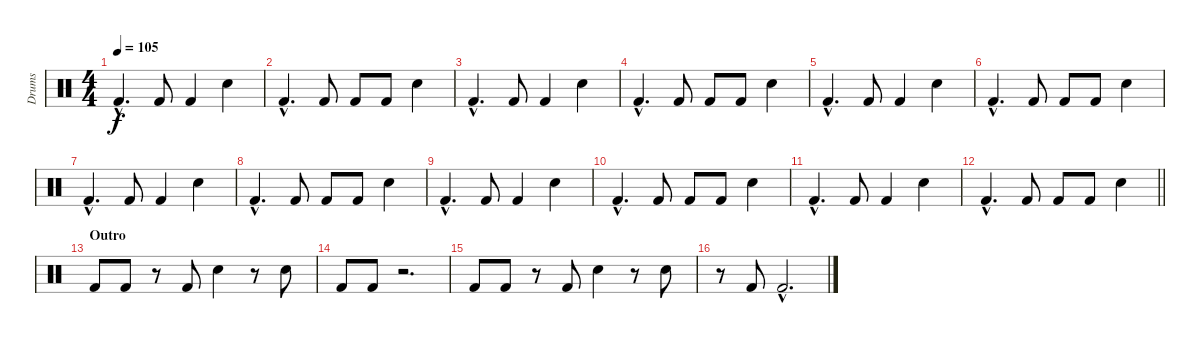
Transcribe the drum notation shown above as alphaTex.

\track ("Drums" "Drums") {instrument percussion}
\staff {score}
\articulation defaults
\ts (4 4)
\tempo 105
\clef neutral
\ks c "Kick (hit) 2"{hac}.4{d dy f} "Kick (hit) 2".8 "Kick (hit) 2".4 "Snare (hit) 2".4
|
"Kick (hit) 2"{hac}.4{d} "Kick (hit) 2".8 "Kick (hit) 2".8 "Kick (hit) 2".8 "Snare (hit) 2".4 |
"Kick (hit) 2"{hac}.4{d} "Kick (hit) 2".8 "Kick (hit) 2".4 "Snare (hit) 2".4 |
"Kick (hit) 2"{hac}.4{d} "Kick (hit) 2".8 "Kick (hit) 2".8 "Kick (hit) 2".8 "Snare (hit) 2".4 |
"Kick (hit) 2"{hac}.4{d} "Kick (hit) 2".8 "Kick (hit) 2".4 "Snare (hit) 2".4 |
"Kick (hit) 2"{hac}.4{d} "Kick (hit) 2".8 "Kick (hit) 2".8 "Kick (hit) 2".8 "Snare (hit) 2".4 |
"Kick (hit) 2"{hac}.4{d} "Kick (hit) 2".8 "Kick (hit) 2".4 "Snare (hit) 2".4 |
"Kick (hit) 2"{hac}.4{d} "Kick (hit) 2".8 "Kick (hit) 2".8 "Kick (hit) 2".8 "Snare (hit) 2".4 |
"Kick (hit) 2"{hac}.4{d} "Kick (hit) 2".8 "Kick (hit) 2".4 "Snare (hit) 2".4 |
"Kick (hit) 2"{hac}.4{d} "Kick (hit) 2".8 "Kick (hit) 2".8 "Kick (hit) 2".8 "Snare (hit) 2".4 |
"Kick (hit) 2"{hac}.4{d} "Kick (hit) 2".8 "Kick (hit) 2".4 "Snare (hit) 2".4 |
\barLineRight lightlight "Kick (hit) 2"{hac}.4{d} "Kick (hit) 2".8 "Kick (hit) 2".8 "Kick (hit) 2".8 "Snare (hit) 2".4
|
\section ("" "Outro")
"Kick (hit) 2".8 "Kick (hit) 2".8 r.8 "Kick (hit) 2".8 "Snare (hit) 2".4 r.8 "Snare (hit) 2".8 |
"Kick (hit) 2".8 "Kick (hit) 2".8 r.2{d} |
"Kick (hit) 2".8 "Kick (hit) 2".8 r.8 "Kick (hit) 2".8 "Snare (hit) 2".4 r.8 "Snare (hit) 2".8 |
r.8 "Kick (hit) 2".8 "Kick (hit) 2"{hac}.2{d}
